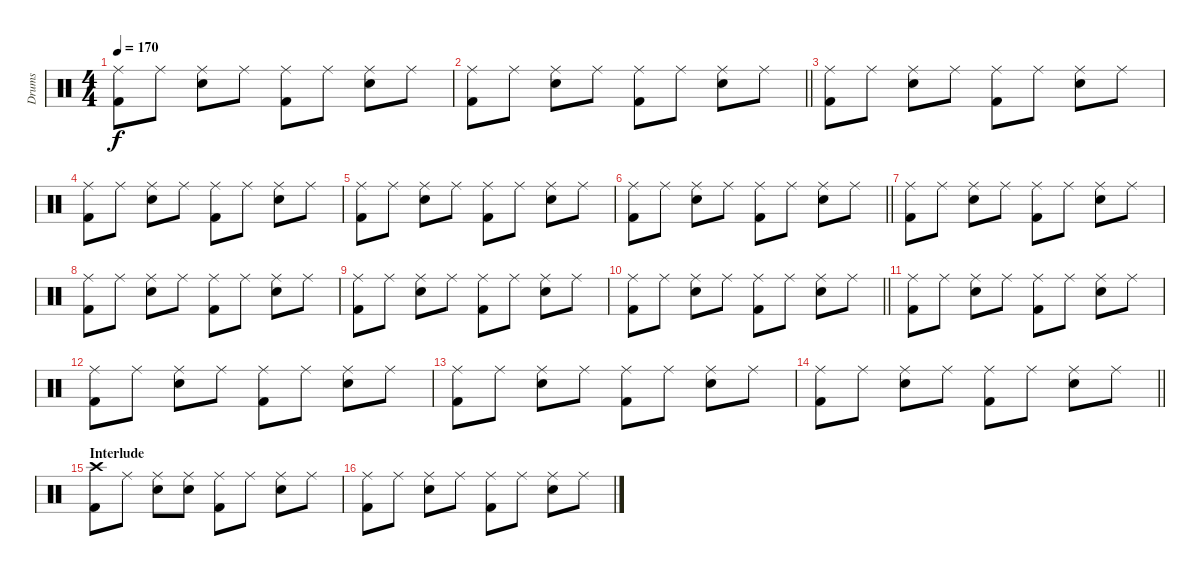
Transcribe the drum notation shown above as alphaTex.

\track ("Drums" "Drums") {instrument percussion}
\staff {score}
\articulation defaults
\ts (4 4)
\tempo 170
\clef neutral
\ks c
("Ride (middle)" "Kick (hit) 2").8{dy f} "Ride (middle)".8 ("Ride (middle)" "Snare (hit) 2").8 "Ride (middle)".8 ("Ride (middle)" "Kick (hit) 2").8 "Ride (middle)".8 ("Ride (middle)" "Snare (hit) 2").8 "Ride (middle)".8 |
\barLineRight lightlight
("Ride (middle)" "Kick (hit) 2").8 "Ride (middle)".8 ("Ride (middle)" "Snare (hit) 2").8 "Ride (middle)".8 ("Ride (middle)" "Kick (hit) 2").8 "Ride (middle)".8 ("Ride (middle)" "Snare (hit) 2").8 "Ride (middle)".8 |
("Ride (middle)" "Kick (hit) 2").8 "Ride (middle)".8 ("Ride (middle)" "Snare (hit) 2").8 "Ride (middle)".8 ("Ride (middle)" "Kick (hit) 2").8 "Ride (middle)".8 ("Ride (middle)" "Snare (hit) 2").8 "Ride (middle)".8 |
("Ride (middle)" "Kick (hit) 2").8 "Ride (middle)".8 ("Ride (middle)" "Snare (hit) 2").8 "Ride (middle)".8 ("Ride (middle)" "Kick (hit) 2").8 "Ride (middle)".8 ("Ride (middle)" "Snare (hit) 2").8 "Ride (middle)".8 |
("Ride (middle)" "Kick (hit) 2").8 "Ride (middle)".8 ("Ride (middle)" "Snare (hit) 2").8 "Ride (middle)".8 ("Ride (middle)" "Kick (hit) 2").8 "Ride (middle)".8 ("Ride (middle)" "Snare (hit) 2").8 "Ride (middle)".8 |
\barLineRight lightlight
("Ride (middle)" "Kick (hit) 2").8 "Ride (middle)".8 ("Ride (middle)" "Snare (hit) 2").8 "Ride (middle)".8 ("Ride (middle)" "Kick (hit) 2").8 "Ride (middle)".8 ("Ride (middle)" "Snare (hit) 2").8 "Ride (middle)".8 |
("Ride (middle)" "Kick (hit) 2").8 "Ride (middle)".8 ("Ride (middle)" "Snare (hit) 2").8 "Ride (middle)".8 ("Ride (middle)" "Kick (hit) 2").8 "Ride (middle)".8 ("Ride (middle)" "Snare (hit) 2").8 "Ride (middle)".8 |
("Ride (middle)" "Kick (hit) 2").8 "Ride (middle)".8 ("Ride (middle)" "Snare (hit) 2").8 "Ride (middle)".8 ("Ride (middle)" "Kick (hit) 2").8 "Ride (middle)".8 ("Ride (middle)" "Snare (hit) 2").8 "Ride (middle)".8 |
("Ride (middle)" "Kick (hit) 2").8 "Ride (middle)".8 ("Ride (middle)" "Snare (hit) 2").8 "Ride (middle)".8 ("Ride (middle)" "Kick (hit) 2").8 "Ride (middle)".8 ("Ride (middle)" "Snare (hit) 2").8 "Ride (middle)".8 |
\barLineRight lightlight
("Ride (middle)" "Kick (hit) 2").8 "Ride (middle)".8 ("Ride (middle)" "Snare (hit) 2").8 "Ride (middle)".8 ("Ride (middle)" "Kick (hit) 2").8 "Ride (middle)".8 ("Ride (middle)" "Snare (hit) 2").8 "Ride (middle)".8 |
("Ride (middle)" "Kick (hit) 2").8 "Ride (middle)".8 ("Ride (middle)" "Snare (hit) 2").8 "Ride (middle)".8 ("Ride (middle)" "Kick (hit) 2").8 "Ride (middle)".8 ("Ride (middle)" "Snare (hit) 2").8 "Ride (middle)".8 |
("Ride (middle)" "Kick (hit) 2").8 "Ride (middle)".8 ("Ride (middle)" "Snare (hit) 2").8 "Ride (middle)".8 ("Ride (middle)" "Kick (hit) 2").8 "Ride (middle)".8 ("Ride (middle)" "Snare (hit) 2").8 "Ride (middle)".8 |
("Ride (middle)" "Kick (hit) 2").8 "Ride (middle)".8 ("Ride (middle)" "Snare (hit) 2").8 "Ride (middle)".8 ("Ride (middle)" "Kick (hit) 2").8 "Ride (middle)".8 ("Ride (middle)" "Snare (hit) 2").8 "Ride (middle)".8 |
\barLineRight lightlight
("Ride (middle)" "Kick (hit) 2").8 "Ride (middle)".8 ("Ride (middle)" "Snare (hit) 2").8 "Ride (middle)".8 ("Ride (middle)" "Kick (hit) 2").8 "Ride (middle)".8 ("Ride (middle)" "Snare (hit) 2").8 "Ride (middle)".8 |
\section ("" "Interlude")
("Crash high (hit)" "Kick (hit) 2").8 "Ride (middle)".8 ("Ride (middle)" "Snare (hit) 2").8 ("Ride (middle)" "Snare (hit) 2").8 ("Ride (middle)" "Kick (hit) 2").8 "Ride (middle)".8 ("Ride (middle)" "Snare (hit) 2").8 "Ride (middle)".8 |
("Ride (middle)" "Kick (hit) 2").8 "Ride (middle)".8 ("Ride (middle)" "Snare (hit) 2").8 "Ride (middle)".8 ("Ride (middle)" "Kick (hit) 2").8 "Ride (middle)".8 ("Ride (middle)" "Snare (hit) 2").8 "Ride (middle)".8
